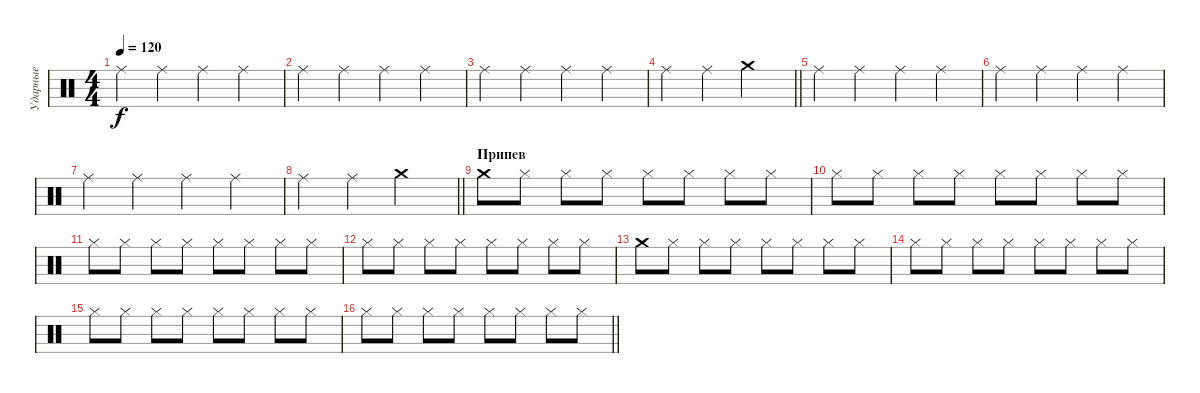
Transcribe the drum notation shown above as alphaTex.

\track ("Ударные" "Ударные") {instrument percussion}
\staff {score}
\articulation defaults
\ts (4 4)
\tempo 120
\clef neutral
\ks c "Ride (middle)".4{dy f} "Ride (middle)".4 "Ride (middle)".4 "Ride (middle)".4
|
"Ride (middle)".4 "Ride (middle)".4 "Ride (middle)".4 "Ride (middle)".4 |
"Ride (middle)".4 "Ride (middle)".4 "Ride (middle)".4 "Ride (middle)".4 |
\barLineRight lightlight "Ride (middle)".4 "Ride (middle)".4 "Crash medium (hit)".2
|
"Ride (middle)".4 "Ride (middle)".4 "Ride (middle)".4 "Ride (middle)".4 |
"Ride (middle)".4 "Ride (middle)".4 "Ride (middle)".4 "Ride (middle)".4 |
"Ride (middle)".4 "Ride (middle)".4 "Ride (middle)".4 "Ride (middle)".4 |
\barLineRight lightlight "Ride (middle)".4 "Ride (middle)".4 "Crash medium (hit)".2
|
\section ("" "Припев")
"Crash medium (hit)".8 "Hi-Hat (closed)".8 "Hi-Hat (closed)".8 "Hi-Hat (closed)".8 "Hi-Hat (closed)".8 "Hi-Hat (closed)".8 "Hi-Hat (closed)".8 "Hi-Hat (closed)".8 |
"Hi-Hat (closed)".8 "Hi-Hat (closed)".8 "Hi-Hat (closed)".8 "Hi-Hat (closed)".8 "Hi-Hat (closed)".8 "Hi-Hat (closed)".8 "Hi-Hat (closed)".8 "Hi-Hat (closed)".8 |
"Hi-Hat (closed)".8 "Hi-Hat (closed)".8 "Hi-Hat (closed)".8 "Hi-Hat (closed)".8 "Hi-Hat (closed)".8 "Hi-Hat (closed)".8 "Hi-Hat (closed)".8 "Hi-Hat (closed)".8 |
"Hi-Hat (closed)".8 "Hi-Hat (closed)".8 "Hi-Hat (closed)".8 "Hi-Hat (closed)".8 "Hi-Hat (closed)".8 "Hi-Hat (closed)".8 "Hi-Hat (closed)".8 "Hi-Hat (closed)".8 |
"Crash medium (hit)".8 "Hi-Hat (closed)".8 "Hi-Hat (closed)".8 "Hi-Hat (closed)".8 "Hi-Hat (closed)".8 "Hi-Hat (closed)".8 "Hi-Hat (closed)".8 "Hi-Hat (closed)".8 |
"Hi-Hat (closed)".8 "Hi-Hat (closed)".8 "Hi-Hat (closed)".8 "Hi-Hat (closed)".8 "Hi-Hat (closed)".8 "Hi-Hat (closed)".8 "Hi-Hat (closed)".8 "Hi-Hat (closed)".8 |
"Hi-Hat (closed)".8 "Hi-Hat (closed)".8 "Hi-Hat (closed)".8 "Hi-Hat (closed)".8 "Hi-Hat (closed)".8 "Hi-Hat (closed)".8 "Hi-Hat (closed)".8 "Hi-Hat (closed)".8 |
\barLineRight lightlight "Hi-Hat (closed)".8 "Hi-Hat (closed)".8 "Hi-Hat (closed)".8 "Hi-Hat (closed)".8 "Hi-Hat (closed)".8 "Hi-Hat (closed)".8 "Hi-Hat (closed)".8 "Hi-Hat (closed)".8
